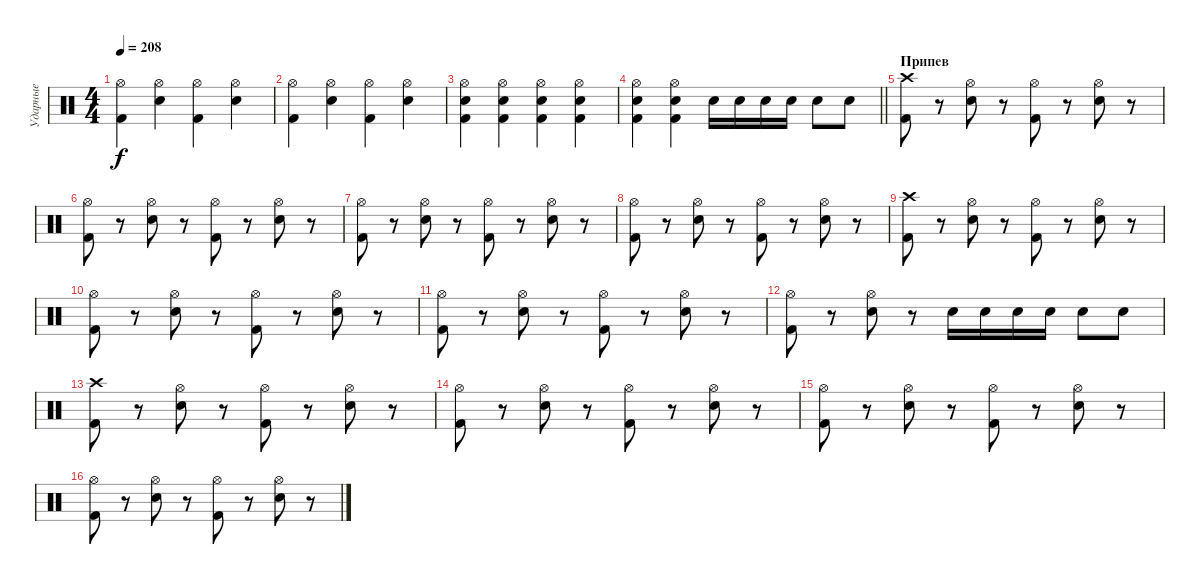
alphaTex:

\track ("Ударные" "Ударные") {instrument percussion}
\staff {score}
\articulation defaults
\ts (4 4)
\tempo 208
\clef neutral
\ks c
("Hi-Hat (open)" "Kick (hit) 2").4{dy f} ("Hi-Hat (open)" "Electric Snare (hit)").4 ("Kick (hit) 2" "Hi-Hat (open)").4 ("Electric Snare (hit)" "Hi-Hat (open)").4 |
("Hi-Hat (open)" "Kick (hit) 2").4 ("Hi-Hat (open)" "Electric Snare (hit)").4 ("Kick (hit) 2" "Hi-Hat (open)").4 ("Electric Snare (hit)" "Hi-Hat (open)").4 |
("Hi-Hat (open)" "Electric Snare (hit)" "Kick (hit) 2").4 ("Hi-Hat (open)" "Electric Snare (hit)" "Kick (hit) 2").4 ("Hi-Hat (open)" "Electric Snare (hit)" "Kick (hit) 2").4 ("Hi-Hat (open)" "Electric Snare (hit)" "Kick (hit) 2").4 |
\barLineRight lightlight
("Hi-Hat (open)" "Electric Snare (hit)" "Kick (hit) 2").4 ("Hi-Hat (open)" "Electric Snare (hit)" "Kick (hit) 2").4 "Electric Snare (hit)".16 "Electric Snare (hit)".16 "Electric Snare (hit)".16 "Electric Snare (hit)".16 "Electric Snare (hit)".8 "Electric Snare (hit)".8 |
\section ("" "Припев")
("Crash high (hit)" "Kick (hit) 2").8 r.8 ("Hi-Hat (open)" "Electric Snare (hit)").8 r.8 ("Hi-Hat (open)" "Kick (hit) 2").8 r.8 ("Hi-Hat (open)" "Electric Snare (hit)").8 r.8 |
("Hi-Hat (open)" "Kick (hit) 2").8 r.8 ("Hi-Hat (open)" "Electric Snare (hit)").8 r.8 ("Hi-Hat (open)" "Kick (hit) 2").8 r.8 ("Hi-Hat (open)" "Electric Snare (hit)").8 r.8 |
("Hi-Hat (open)" "Kick (hit) 2").8 r.8 ("Hi-Hat (open)" "Electric Snare (hit)").8 r.8 ("Hi-Hat (open)" "Kick (hit) 2").8 r.8 ("Hi-Hat (open)" "Electric Snare (hit)").8 r.8 |
("Hi-Hat (open)" "Kick (hit) 2").8 r.8 ("Hi-Hat (open)" "Electric Snare (hit)").8 r.8 ("Hi-Hat (open)" "Kick (hit) 2").8 r.8 ("Hi-Hat (open)" "Electric Snare (hit)").8 r.8 |
("Crash high (hit)" "Kick (hit) 2").8 r.8 ("Hi-Hat (open)" "Electric Snare (hit)").8 r.8 ("Hi-Hat (open)" "Kick (hit) 2").8 r.8 ("Hi-Hat (open)" "Electric Snare (hit)").8 r.8 |
("Hi-Hat (open)" "Kick (hit) 2").8 r.8 ("Hi-Hat (open)" "Electric Snare (hit)").8 r.8 ("Hi-Hat (open)" "Kick (hit) 2").8 r.8 ("Hi-Hat (open)" "Electric Snare (hit)").8 r.8 |
("Hi-Hat (open)" "Kick (hit) 2").8 r.8 ("Hi-Hat (open)" "Electric Snare (hit)").8 r.8 ("Hi-Hat (open)" "Kick (hit) 2").8 r.8 ("Hi-Hat (open)" "Electric Snare (hit)").8 r.8 |
("Hi-Hat (open)" "Kick (hit) 2").8 r.8 ("Hi-Hat (open)" "Electric Snare (hit)").8 r.8 "Electric Snare (hit)".16 "Electric Snare (hit)".16 "Electric Snare (hit)".16 "Electric Snare (hit)".16 "Electric Snare (hit)".8 "Electric Snare (hit)".8 |
("Crash high (hit)" "Kick (hit) 2").8 r.8 ("Hi-Hat (open)" "Electric Snare (hit)").8 r.8 ("Hi-Hat (open)" "Kick (hit) 2").8 r.8 ("Hi-Hat (open)" "Electric Snare (hit)").8 r.8 |
("Hi-Hat (open)" "Kick (hit) 2").8 r.8 ("Hi-Hat (open)" "Electric Snare (hit)").8 r.8 ("Hi-Hat (open)" "Kick (hit) 2").8 r.8 ("Hi-Hat (open)" "Electric Snare (hit)").8 r.8 |
("Hi-Hat (open)" "Kick (hit) 2").8 r.8 ("Hi-Hat (open)" "Electric Snare (hit)").8 r.8 ("Hi-Hat (open)" "Kick (hit) 2").8 r.8 ("Hi-Hat (open)" "Electric Snare (hit)").8 r.8 |
("Hi-Hat (open)" "Kick (hit) 2").8 r.8 ("Hi-Hat (open)" "Electric Snare (hit)").8 r.8 ("Hi-Hat (open)" "Kick (hit) 2").8 r.8 ("Hi-Hat (open)" "Electric Snare (hit)").8 r.8
